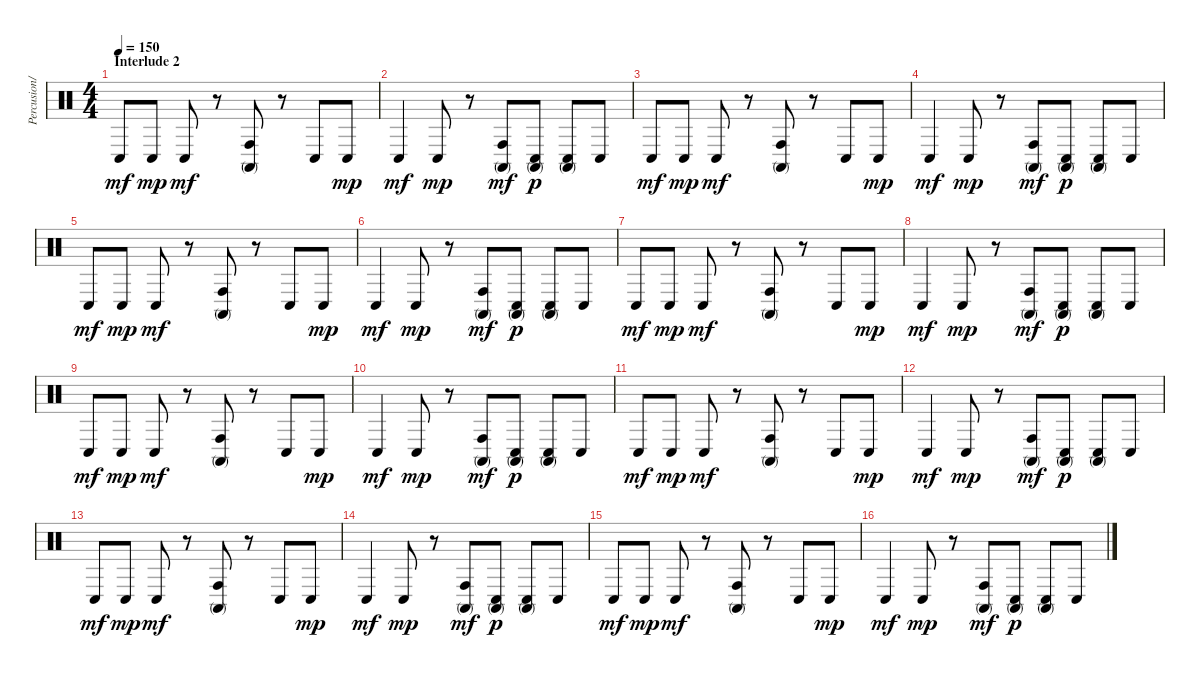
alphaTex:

\track ("Percusion/Drum" "Percusion/") {instrument percussion}
\staff {score}
\articulation defaults
\ts (4 4)
\section ("" "Interlude 2")
\tempo 150
\clef neutral
\ks c "Conga low (hit)".8{dy mf} "Conga low (hit)".8{dy mp} "Conga low (hit)".8{dy mf}
r.8 ("Conga high (mute)" "Conga high (hit)").8 r.8 "Conga low (hit)".8 "Conga low (hit)".8{dy mp} |
"Conga low (hit)".4{dy mf} "Conga low (hit)".8{dy mp} r.8 ("Conga high (mute)" "Conga high (hit)").8{dy mf} ("Conga low (hit)" "Conga high (mute)").8{dy p} ("Conga low (hit)" "Conga high (mute)").8 "Conga low (hit)".8 |
"Conga low (hit)".8{dy mf} "Conga low (hit)".8{dy mp} "Conga low (hit)".8{dy mf} r.8 ("Conga high (mute)" "Conga high (hit)").8 r.8 "Conga low (hit)".8 "Conga low (hit)".8{dy mp} |
"Conga low (hit)".4{dy mf} "Conga low (hit)".8{dy mp} r.8 ("Conga high (mute)" "Conga high (hit)").8{dy mf} ("Conga low (hit)" "Conga high (mute)").8{dy p} ("Conga low (hit)" "Conga high (mute)").8 "Conga low (hit)".8 |
"Conga low (hit)".8{dy mf} "Conga low (hit)".8{dy mp} "Conga low (hit)".8{dy mf} r.8 ("Conga high (mute)" "Conga high (hit)").8 r.8 "Conga low (hit)".8 "Conga low (hit)".8{dy mp} |
"Conga low (hit)".4{dy mf} "Conga low (hit)".8{dy mp} r.8 ("Conga high (mute)" "Conga high (hit)").8{dy mf} ("Conga low (hit)" "Conga high (mute)").8{dy p} ("Conga low (hit)" "Conga high (mute)").8 "Conga low (hit)".8 |
"Conga low (hit)".8{dy mf} "Conga low (hit)".8{dy mp} "Conga low (hit)".8{dy mf} r.8 ("Conga high (mute)" "Conga high (hit)").8 r.8 "Conga low (hit)".8 "Conga low (hit)".8{dy mp} |
"Conga low (hit)".4{dy mf} "Conga low (hit)".8{dy mp} r.8 ("Conga high (mute)" "Conga high (hit)").8{dy mf} ("Conga low (hit)" "Conga high (mute)").8{dy p} ("Conga low (hit)" "Conga high (mute)").8 "Conga low (hit)".8 |
"Conga low (hit)".8{dy mf} "Conga low (hit)".8{dy mp} "Conga low (hit)".8{dy mf} r.8 ("Conga high (mute)" "Conga high (hit)").8 r.8 "Conga low (hit)".8 "Conga low (hit)".8{dy mp} |
"Conga low (hit)".4{dy mf} "Conga low (hit)".8{dy mp} r.8 ("Conga high (mute)" "Conga high (hit)").8{dy mf} ("Conga low (hit)" "Conga high (mute)").8{dy p} ("Conga low (hit)" "Conga high (mute)").8 "Conga low (hit)".8 |
"Conga low (hit)".8{dy mf} "Conga low (hit)".8{dy mp} "Conga low (hit)".8{dy mf} r.8 ("Conga high (mute)" "Conga high (hit)").8 r.8 "Conga low (hit)".8 "Conga low (hit)".8{dy mp} |
"Conga low (hit)".4{dy mf} "Conga low (hit)".8{dy mp} r.8 ("Conga high (mute)" "Conga high (hit)").8{dy mf} ("Conga low (hit)" "Conga high (mute)").8{dy p} ("Conga low (hit)" "Conga high (mute)").8 "Conga low (hit)".8 |
"Conga low (hit)".8{dy mf} "Conga low (hit)".8{dy mp} "Conga low (hit)".8{dy mf} r.8 ("Conga high (mute)" "Conga high (hit)").8 r.8 "Conga low (hit)".8 "Conga low (hit)".8{dy mp} |
"Conga low (hit)".4{dy mf} "Conga low (hit)".8{dy mp} r.8 ("Conga high (mute)" "Conga high (hit)").8{dy mf} ("Conga low (hit)" "Conga high (mute)").8{dy p} ("Conga low (hit)" "Conga high (mute)").8 "Conga low (hit)".8 |
"Conga low (hit)".8{dy mf} "Conga low (hit)".8{dy mp} "Conga low (hit)".8{dy mf} r.8 ("Conga high (mute)" "Conga high (hit)").8 r.8 "Conga low (hit)".8 "Conga low (hit)".8{dy mp} |
"Conga low (hit)".4{dy mf} "Conga low (hit)".8{dy mp} r.8 ("Conga high (mute)" "Conga high (hit)").8{dy mf} ("Conga low (hit)" "Conga high (mute)").8{dy p} ("Conga low (hit)" "Conga high (mute)").8 "Conga low (hit)".8
